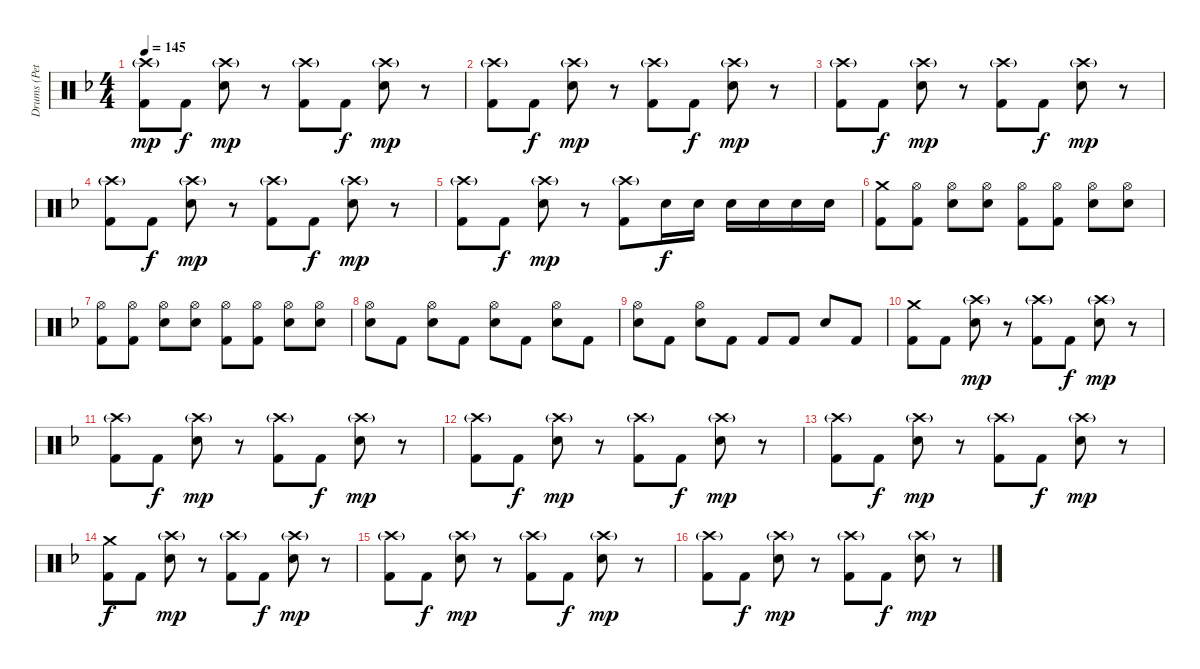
\track ("Drums (Pete)" "Drums (Pet") {instrument percussion}
\staff {score}
\articulation defaults
\ts (4 4)
\tempo 145
\clef neutral
\ks f
("Crash high (hit)"{g} "Kick (hit) 2").8{dy mp} "Kick (hit) 2".8{dy f} ("Crash high (hit)"{g} "Snare (hit) 2").8{dy mp} r.8 ("Crash high (hit)"{g} "Kick (hit) 2").8 "Kick (hit) 2".8{dy f} ("Crash high (hit)"{g} "Snare (hit) 2").8{dy mp} r.8 |
("Crash high (hit)"{g} "Kick (hit) 2").8 "Kick (hit) 2".8{dy f} ("Crash high (hit)"{g} "Snare (hit) 2").8{dy mp} r.8 ("Crash high (hit)"{g} "Kick (hit) 2").8 "Kick (hit) 2".8{dy f} ("Crash high (hit)"{g} "Snare (hit) 2").8{dy mp} r.8 |
("Crash high (hit)"{g} "Kick (hit) 2").8 "Kick (hit) 2".8{dy f} ("Crash high (hit)"{g} "Snare (hit) 2").8{dy mp} r.8 ("Crash high (hit)"{g} "Kick (hit) 2").8 "Kick (hit) 2".8{dy f} ("Crash high (hit)"{g} "Snare (hit) 2").8{dy mp} r.8 |
("Crash high (hit)"{g} "Kick (hit) 2").8 "Kick (hit) 2".8{dy f} ("Crash high (hit)"{g} "Snare (hit) 2").8{dy mp} r.8 ("Crash high (hit)"{g} "Kick (hit) 2").8 "Kick (hit) 2".8{dy f} ("Crash high (hit)"{g} "Snare (hit) 2").8{dy mp} r.8 |
("Crash high (hit)"{g} "Kick (hit) 2").8 "Kick (hit) 2".8{dy f} ("Crash high (hit)"{g} "Snare (hit) 2").8{dy mp} r.8 ("Crash high (hit)"{g} "Kick (hit) 2").8 "Snare (hit) 2".16{dy f} "Snare (hit) 2".16 "Snare (hit) 2".16 "Snare (hit) 2".16 "Snare (hit) 2".16 "Snare (hit) 2".16 |
("Crash medium (hit)" "Kick (hit) 2").8 ("Hi-Hat (open)" "Kick (hit) 2").8 ("Hi-Hat (open)" "Snare (hit) 2").8 ("Hi-Hat (open)" "Snare (hit) 2").8 ("Hi-Hat (open)" "Kick (hit) 2").8 ("Hi-Hat (open)" "Kick (hit) 2").8 ("Hi-Hat (open)" "Snare (hit) 2").8 ("Hi-Hat (open)" "Snare (hit) 2").8 |
("Hi-Hat (open)" "Kick (hit) 2").8 ("Hi-Hat (open)" "Kick (hit) 2").8 ("Hi-Hat (open)" "Snare (hit) 2").8 ("Hi-Hat (open)" "Snare (hit) 2").8 ("Hi-Hat (open)" "Kick (hit) 2").8 ("Hi-Hat (open)" "Kick (hit) 2").8 ("Hi-Hat (open)" "Snare (hit) 2").8 ("Hi-Hat (open)" "Snare (hit) 2").8 |
("Hi-Hat (open)" "Snare (hit) 2").8 "Kick (hit) 2".8 ("Hi-Hat (open)" "Snare (hit) 2").8 "Kick (hit) 2".8 ("Hi-Hat (open)" "Snare (hit) 2").8 "Kick (hit) 2".8 ("Hi-Hat (open)" "Snare (hit) 2").8 "Kick (hit) 2".8 |
("Hi-Hat (open)" "Snare (hit) 2").8 "Kick (hit) 2".8 ("Hi-Hat (open)" "Snare (hit) 2").8 "Kick (hit) 2".8 "Kick (hit) 2".8 "Kick (hit) 2".8 "Snare (hit) 2".8 "Kick (hit) 2".8 |
("Crash medium (hit)" "Kick (hit) 2").8 "Kick (hit) 2".8 ("Crash high (hit)"{g} "Snare (hit) 2").8{dy mp} r.8 ("Crash high (hit)"{g} "Kick (hit) 2").8 "Kick (hit) 2".8{dy f} ("Crash high (hit)"{g} "Snare (hit) 2").8{dy mp} r.8 |
("Crash high (hit)"{g} "Kick (hit) 2").8 "Kick (hit) 2".8{dy f} ("Crash high (hit)"{g} "Snare (hit) 2").8{dy mp} r.8 ("Crash high (hit)"{g} "Kick (hit) 2").8 "Kick (hit) 2".8{dy f} ("Crash high (hit)"{g} "Snare (hit) 2").8{dy mp} r.8 |
("Crash high (hit)"{g} "Kick (hit) 2").8 "Kick (hit) 2".8{dy f} ("Crash high (hit)"{g} "Snare (hit) 2").8{dy mp} r.8 ("Crash high (hit)"{g} "Kick (hit) 2").8 "Kick (hit) 2".8{dy f} ("Crash high (hit)"{g} "Snare (hit) 2").8{dy mp} r.8 |
("Crash high (hit)"{g} "Kick (hit) 2").8 "Kick (hit) 2".8{dy f} ("Crash high (hit)"{g} "Snare (hit) 2").8{dy mp} r.8 ("Crash high (hit)"{g} "Kick (hit) 2").8 "Kick (hit) 2".8{dy f} ("Crash high (hit)"{g} "Snare (hit) 2").8{dy mp} r.8 |
("Crash medium (hit)" "Kick (hit) 2").8{dy f} "Kick (hit) 2".8 ("Crash high (hit)"{g} "Snare (hit) 2").8{dy mp} r.8 ("Crash high (hit)"{g} "Kick (hit) 2").8 "Kick (hit) 2".8{dy f} ("Crash high (hit)"{g} "Snare (hit) 2").8{dy mp} r.8 |
("Crash high (hit)"{g} "Kick (hit) 2").8 "Kick (hit) 2".8{dy f} ("Crash high (hit)"{g} "Snare (hit) 2").8{dy mp} r.8 ("Crash high (hit)"{g} "Kick (hit) 2").8 "Kick (hit) 2".8{dy f} ("Crash high (hit)"{g} "Snare (hit) 2").8{dy mp} r.8 |
("Crash high (hit)"{g} "Kick (hit) 2").8 "Kick (hit) 2".8{dy f} ("Crash high (hit)"{g} "Snare (hit) 2").8{dy mp} r.8 ("Crash high (hit)"{g} "Kick (hit) 2").8 "Kick (hit) 2".8{dy f} ("Crash high (hit)"{g} "Snare (hit) 2").8{dy mp} r.8
